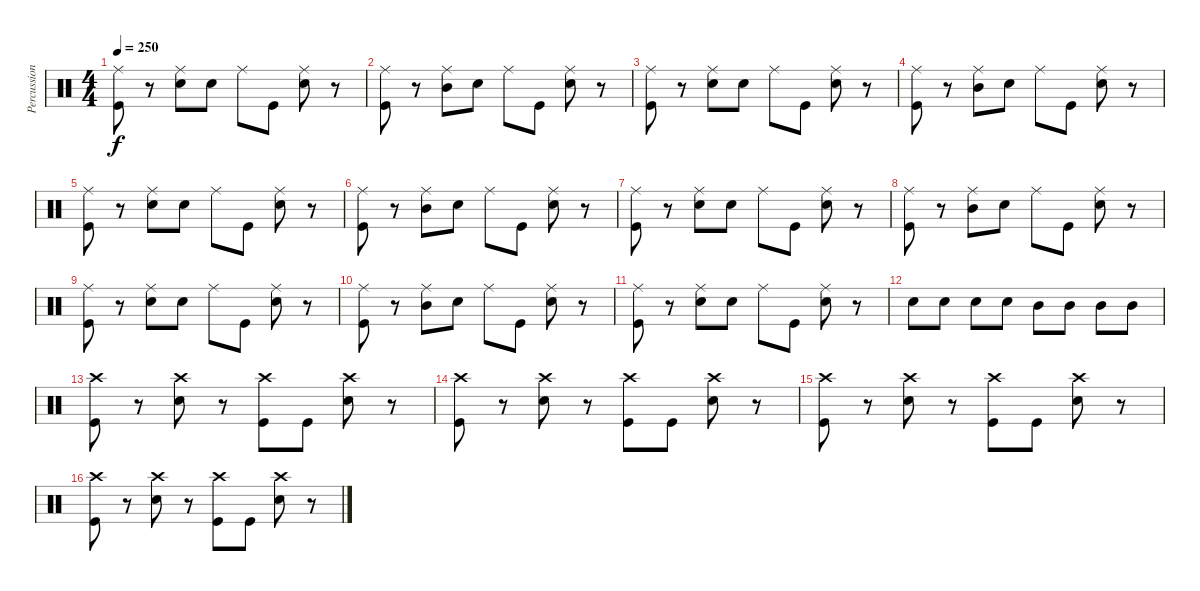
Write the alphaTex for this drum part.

\track ("Percussion" "Percussion") {instrument percussion}
\staff {score}
\articulation defaults
\ts (4 4)
\tempo 250
\clef neutral
\ks c
("Ride (middle)" "Kick (hit)").8{dy f} r.8 ("Ride (middle)" "Snare (hit) 2").8 "Snare (hit) 2".8 "Ride (middle)".8 "Kick (hit)".8 ("Ride (middle)" "Snare (hit) 2").8 r.8 |
("Ride (middle)" "Kick (hit)").8 r.8 ("Ride (middle)" "Mid Tom (hit)").8 "Snare (hit) 2".8 "Ride (middle)".8 "Kick (hit)".8 ("Ride (middle)" "Snare (hit) 2").8 r.8 |
("Ride (middle)" "Kick (hit)").8 r.8 ("Ride (middle)" "Snare (hit) 2").8 "Snare (hit) 2".8 "Ride (middle)".8 "Kick (hit)".8 ("Ride (middle)" "Snare (hit) 2").8 r.8 |
("Ride (middle)" "Kick (hit)").8 r.8 ("Ride (middle)" "Mid Tom (hit)").8 "Snare (hit) 2".8 "Ride (middle)".8 "Kick (hit)".8 ("Ride (middle)" "Snare (hit) 2").8 r.8 |
("Ride (middle)" "Kick (hit)").8 r.8 ("Ride (middle)" "Snare (hit) 2").8 "Snare (hit) 2".8 "Ride (middle)".8 "Kick (hit)".8 ("Ride (middle)" "Snare (hit) 2").8 r.8 |
("Ride (middle)" "Kick (hit)").8 r.8 ("Ride (middle)" "Mid Tom (hit)").8 "Snare (hit) 2".8 "Ride (middle)".8 "Kick (hit)".8 ("Ride (middle)" "Snare (hit) 2").8 r.8 |
("Ride (middle)" "Kick (hit)").8 r.8 ("Ride (middle)" "Snare (hit) 2").8 "Snare (hit) 2".8 "Ride (middle)".8 "Kick (hit)".8 ("Ride (middle)" "Snare (hit) 2").8 r.8 |
("Ride (middle)" "Kick (hit)").8 r.8 ("Ride (middle)" "Mid Tom (hit)").8 "Snare (hit) 2".8 "Ride (middle)".8 "Kick (hit)".8 ("Ride (middle)" "Snare (hit) 2").8 r.8 |
("Ride (middle)" "Kick (hit)").8 r.8 ("Ride (middle)" "Snare (hit) 2").8 "Snare (hit) 2".8 "Ride (middle)".8 "Kick (hit)".8 ("Ride (middle)" "Snare (hit) 2").8 r.8 |
("Ride (middle)" "Kick (hit)").8 r.8 ("Ride (middle)" "Mid Tom (hit)").8 "Snare (hit) 2".8 "Ride (middle)".8 "Kick (hit)".8 ("Ride (middle)" "Snare (hit) 2").8 r.8 |
("Ride (middle)" "Kick (hit)").8 r.8 ("Ride (middle)" "Snare (hit) 2").8 "Snare (hit) 2".8 "Ride (middle)".8 "Kick (hit)".8 ("Ride (middle)" "Snare (hit) 2").8 r.8 |
"Snare (hit) 2".8 "Snare (hit) 2".8 "Snare (hit) 2".8 "Snare (hit) 2".8 "Mid Tom (hit)".8 "Mid Tom (hit)".8 "Mid Tom (hit)".8 "Mid Tom (hit)".8 |
("Crash high (hit)" "Kick (hit)").8 r.8 ("Crash high (hit)" "Snare (hit) 2").8 r.8 ("Crash high (hit)" "Kick (hit)").8 "Kick (hit)".8 ("Crash high (hit)" "Snare (hit) 2").8 r.8 |
("Crash high (hit)" "Kick (hit)").8 r.8 ("Crash high (hit)" "Snare (hit) 2").8 r.8 ("Crash high (hit)" "Kick (hit)").8 "Kick (hit)".8 ("Crash high (hit)" "Snare (hit) 2").8 r.8 |
("Crash high (hit)" "Kick (hit)").8 r.8 ("Crash high (hit)" "Snare (hit) 2").8 r.8 ("Crash high (hit)" "Kick (hit)").8 "Kick (hit)".8 ("Crash high (hit)" "Snare (hit) 2").8 r.8 |
("Crash high (hit)" "Kick (hit)").8 r.8 ("Crash high (hit)" "Snare (hit) 2").8 r.8 ("Crash high (hit)" "Kick (hit)").8 "Kick (hit)".8 ("Crash high (hit)" "Snare (hit) 2").8 r.8
